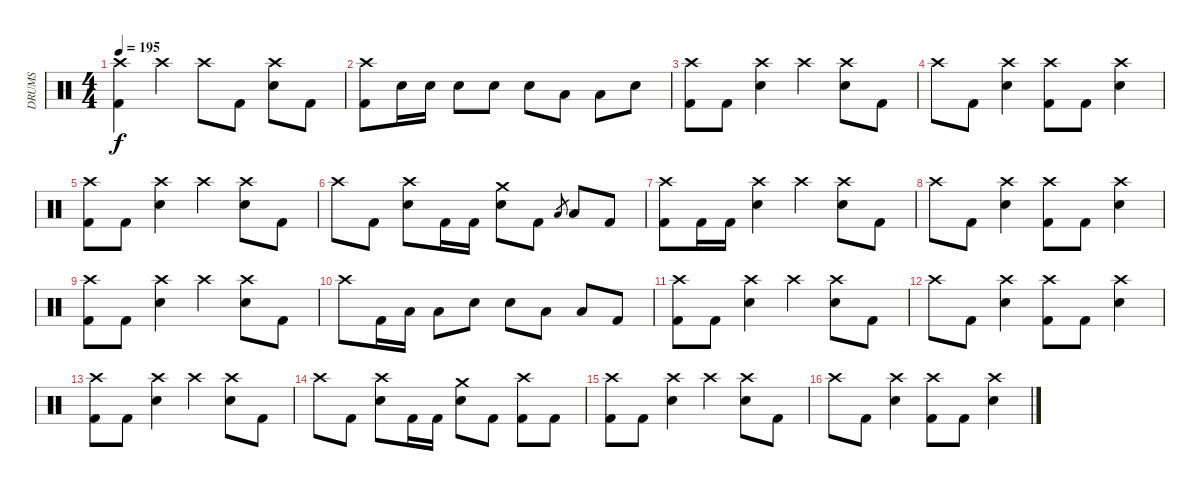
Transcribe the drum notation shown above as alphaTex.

\track ("DRUMS" "DRUMS") {instrument percussion}
\staff {score}
\articulation defaults
\ts (4 4)
\tempo 195
\clef neutral
\ks c
("Crash high (hit)" "Kick (hit) 2").4{dy f} "Crash high (hit)".4 "Crash high (hit)".8 "Kick (hit) 2".8 ("Crash high (hit)" "Electric Snare (hit)").8 "Kick (hit) 2".8 |
("Crash high (hit)" "Kick (hit) 2").8 "Electric Snare (hit)".16 "Electric Snare (hit)".16 "Electric Snare (hit)".8 "Electric Snare (hit)".8 "Electric Snare (hit)".8 "Low Tom (hit)".8 "Low Floor Tom (hit)".8 "Electric Snare (hit)".8 |
("Crash high (hit)" "Kick (hit) 2").8 "Kick (hit) 2".8 ("Crash high (hit)" "Electric Snare (hit)").4 "Crash high (hit)".4 ("Crash high (hit)" "Electric Snare (hit)").8 "Kick (hit) 2".8 |
"Crash high (hit)".8 "Kick (hit) 2".8 ("Crash high (hit)" "Electric Snare (hit)").4 ("Crash high (hit)" "Kick (hit) 2").8 "Kick (hit) 2".8 ("Crash high (hit)" "Electric Snare (hit)").4 |
("Crash high (hit)" "Kick (hit) 2").8 "Kick (hit) 2".8 ("Crash high (hit)" "Electric Snare (hit)").4 "Crash high (hit)".4 ("Crash high (hit)" "Electric Snare (hit)").8 "Kick (hit) 2".8 |
"Crash high (hit)".8 "Kick (hit) 2".8 ("Crash high (hit)" "Electric Snare (hit)").8 "Kick (hit) 2".16 "Kick (hit) 2".16 ("Crash medium (hit)" "Electric Snare (hit)").8 "Kick (hit) 2".8 "Low Tom (hit)".8{gr} "Low Tom (hit)".8 "Kick (hit) 2".8 |
("Crash high (hit)" "Kick (hit) 2").8 "Kick (hit) 2".16 "Kick (hit) 2".16 ("Crash high (hit)" "Electric Snare (hit)").4 "Crash high (hit)".4 ("Crash high (hit)" "Electric Snare (hit)").8 "Kick (hit) 2".8 |
"Crash high (hit)".8 "Kick (hit) 2".8 ("Crash high (hit)" "Electric Snare (hit)").4 ("Crash high (hit)" "Kick (hit) 2").8 "Kick (hit) 2".8 ("Crash high (hit)" "Electric Snare (hit)").4 |
("Crash high (hit)" "Kick (hit) 2").8 "Kick (hit) 2".8 ("Crash high (hit)" "Electric Snare (hit)").4 "Crash high (hit)".4 ("Crash high (hit)" "Electric Snare (hit)").8 "Kick (hit) 2".8 |
"Crash high (hit)".8 "Kick (hit) 2".16 "Low Tom (hit)".16 "Low Tom (hit)".8 "Electric Snare (hit)".8 "Electric Snare (hit)".8 "Low Tom (hit)".8 "Low Floor Tom (hit)".8 "Kick (hit) 2".8 |
("Crash high (hit)" "Kick (hit) 2").8 "Kick (hit) 2".8 ("Crash high (hit)" "Electric Snare (hit)").4 "Crash high (hit)".4 ("Crash high (hit)" "Electric Snare (hit)").8 "Kick (hit) 2".8 |
"Crash high (hit)".8 "Kick (hit) 2".8 ("Crash high (hit)" "Electric Snare (hit)").4 ("Crash high (hit)" "Kick (hit) 2").8 "Kick (hit) 2".8 ("Crash high (hit)" "Electric Snare (hit)").4 |
("Crash high (hit)" "Kick (hit) 2").8 "Kick (hit) 2".8 ("Crash high (hit)" "Electric Snare (hit)").4 "Crash high (hit)".4 ("Crash high (hit)" "Electric Snare (hit)").8 "Kick (hit) 2".8 |
"Crash high (hit)".8 "Kick (hit) 2".8 ("Crash high (hit)" "Electric Snare (hit)").8 "Kick (hit) 2".16 "Kick (hit) 2".16 ("Crash medium (hit)" "Electric Snare (hit)").8 "Kick (hit) 2".8 ("Crash high (hit)" "Kick (hit) 2").8 "Kick (hit) 2".8 |
("Crash high (hit)" "Kick (hit) 2").8 "Kick (hit) 2".8 ("Crash high (hit)" "Electric Snare (hit)").4 "Crash high (hit)".4 ("Crash high (hit)" "Electric Snare (hit)").8 "Kick (hit) 2".8 |
"Crash high (hit)".8 "Kick (hit) 2".8 ("Crash high (hit)" "Electric Snare (hit)").4 ("Crash high (hit)" "Kick (hit) 2").8 "Kick (hit) 2".8 ("Crash high (hit)" "Electric Snare (hit)").4
